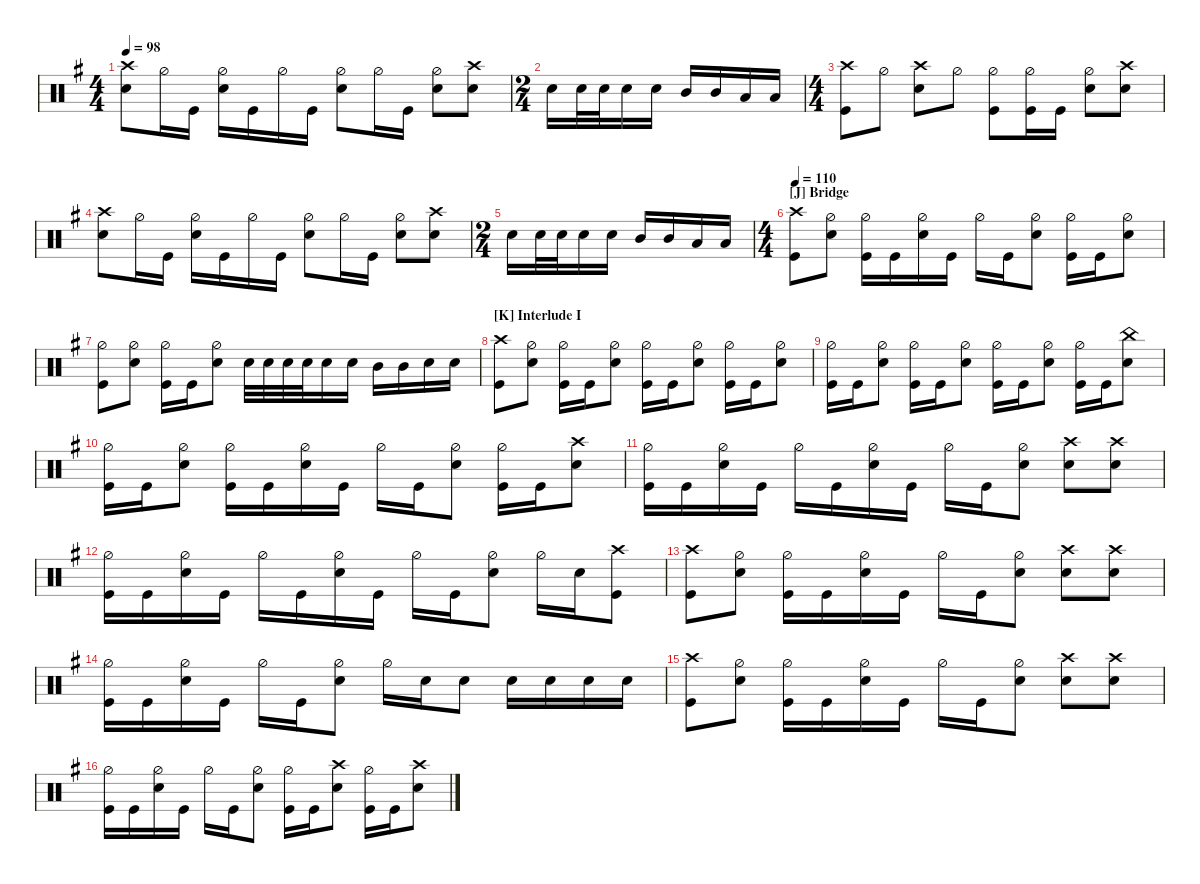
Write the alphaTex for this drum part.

\defaultSystemsLayout 4
\hideDynamics
\bracketExtendMode nobrackets
\track ("Drums" " ") {instrument percussion}
\staff
\articulation defaults
\ts (4 4)
\tempo 98
\clef neutral
\ks eminor
("Snare (hit) 2"{acc forcenatural} "Crash high (hit)"{acc forcenatural}).8{dy f} "Hi-Hat (half)"{acc forcenatural}.16 "Kick (hit)"{acc forcenatural}.16 ("Snare (hit) 2"{acc forcenatural} "Hi-Hat (half)"{acc forcenatural}).16 "Kick (hit)"{acc forcenatural}.16 "Hi-Hat (half)"{acc forcenatural}.16 "Kick (hit)"{acc forcenatural}.16 ("Snare (hit) 2"{acc forcenatural} "Hi-Hat (half)"{acc forcenatural}).8 "Hi-Hat (half)"{acc forcenatural}.16 "Kick (hit)"{acc forcenatural}.16 ("Snare (hit) 2"{acc forcenatural} "Hi-Hat (half)"{acc forcenatural}).8 ("Snare (hit) 2"{acc forcenatural} "Crash high (hit)"{acc forcenatural}).8 |
\ts (2 4)
\beaming (8 2 2)
"Snare (hit) 2"{acc forcenatural}.16 "Snare (hit) 2"{acc forcenatural}.32 "Snare (hit) 2"{acc forcenatural}.32 "Snare (hit) 2"{acc forcenatural}.16 "Snare (hit) 2"{acc forcenatural}.16 "Mid Tom (hit)"{acc forcenatural}.16{dy fff} "Mid Tom (hit)"{acc forcenatural}.16 "Low Tom (hit)"{acc forcenatural}.16 "Low Tom (hit)"{acc forcenatural}.16 |
\ts (4 4)
\beaming (8 2 2 2 2)
("Kick (hit)"{acc forcenatural} "Crash high (hit)"{acc forcenatural}).8{dy f} "Hi-Hat (half)"{acc forcenatural}.8 ("Snare (hit) 2"{acc forcenatural} "Crash high (hit)"{acc forcenatural}).8 "Hi-Hat (half)"{acc forcenatural}.8 ("Hi-Hat (half)"{acc forcenatural} "Kick (hit)"{acc forcenatural}).8 ("Hi-Hat (half)"{acc forcenatural} "Kick (hit)"{acc forcenatural}).16 "Kick (hit)"{acc forcenatural}.16 ("Snare (hit) 2"{acc forcenatural} "Hi-Hat (half)"{acc forcenatural}).8 ("Snare (hit) 2"{acc forcenatural} "Crash high (hit)"{acc forcenatural}).8 |
("Snare (hit) 2"{acc forcenatural} "Crash high (hit)"{acc forcenatural}).8 "Hi-Hat (half)"{acc forcenatural}.16 "Kick (hit)"{acc forcenatural}.16 ("Snare (hit) 2"{acc forcenatural} "Hi-Hat (half)"{acc forcenatural}).16 "Kick (hit)"{acc forcenatural}.16 "Hi-Hat (half)"{acc forcenatural}.16 "Kick (hit)"{acc forcenatural}.16 ("Snare (hit) 2"{acc forcenatural} "Hi-Hat (half)"{acc forcenatural}).8 "Hi-Hat (half)"{acc forcenatural}.16 "Kick (hit)"{acc forcenatural}.16 ("Snare (hit) 2"{acc forcenatural} "Hi-Hat (half)"{acc forcenatural}).8 ("Snare (hit) 2"{acc forcenatural} "Crash high (hit)"{acc forcenatural}).8 |
\ts (2 4)
\beaming (8 2 2)
"Snare (hit) 2"{acc forcenatural}.16 "Snare (hit) 2"{acc forcenatural}.32 "Snare (hit) 2"{acc forcenatural}.32 "Snare (hit) 2"{acc forcenatural}.16 "Snare (hit) 2"{acc forcenatural}.16 "Mid Tom (hit)"{acc forcenatural}.16{dy fff} "Mid Tom (hit)"{acc forcenatural}.16 "Low Tom (hit)"{acc forcenatural}.16 "Low Tom (hit)"{acc forcenatural}.16 |
\ts (4 4)
\beaming (8 2 2 2 2)
\section ("J" "Bridge")
\tempo 110
("Kick (hit)"{acc forcenatural} "Crash high (hit)"{acc forcenatural}).8{dy f} ("Hi-Hat (half)"{acc forcenatural} "Snare (hit) 2"{acc forcenatural}).8 ("Hi-Hat (half)"{acc forcenatural} "Kick (hit)"{acc forcenatural}).16 "Kick (hit)"{acc forcenatural}.16 ("Hi-Hat (half)"{acc forcenatural} "Snare (hit) 2"{acc forcenatural}).16 "Kick (hit)"{acc forcenatural}.16 "Hi-Hat (half)"{acc forcenatural}.16 "Kick (hit)"{acc forcenatural}.16 ("Hi-Hat (half)"{acc forcenatural} "Snare (hit) 2"{acc forcenatural}).8 ("Hi-Hat (half)"{acc forcenatural} "Kick (hit)"{acc forcenatural}).16 "Kick (hit)"{acc forcenatural}.16 ("Hi-Hat (half)"{acc forcenatural} "Snare (hit) 2"{acc forcenatural}).8 |
("Kick (hit)"{acc forcenatural} "Hi-Hat (half)"{acc forcenatural}).8 ("Hi-Hat (half)"{acc forcenatural} "Snare (hit) 2"{acc forcenatural}).8 ("Hi-Hat (half)"{acc forcenatural} "Kick (hit)"{acc forcenatural}).16 "Kick (hit)"{acc forcenatural}.16 ("Hi-Hat (half)"{acc forcenatural} "Snare (hit) 2"{acc forcenatural}).8 "Snare (hit) 2"{acc forcenatural}.32{dy mp} "Snare (hit) 2"{acc forcenatural}.32{dy mf} "Snare (hit) 2"{acc forcenatural}.32 "Snare (hit) 2"{acc forcenatural}.32 "Snare (hit) 2"{acc forcenatural}.16{dy f} "Snare (hit) 2"{acc forcenatural}.16 "Mid Tom (hit)"{acc forcenatural}.16{dy ff} "Mid Tom (hit)"{acc forcenatural}.16 "Snare (hit) 2"{acc forcenatural}.16{dy f} "Snare (hit) 2"{acc forcenatural}.16 |
\section ("K" "Interlude I")
("Kick (hit)"{acc forcenatural} "Crash high (hit)"{acc forcenatural}).8 ("Hi-Hat (half)"{acc forcenatural} "Snare (hit) 2"{acc forcenatural}).8 ("Hi-Hat (half)"{acc forcenatural} "Kick (hit)"{acc forcenatural}).16 "Kick (hit)"{acc forcenatural}.16 ("Hi-Hat (half)"{acc forcenatural} "Snare (hit) 2"{acc forcenatural}).8 ("Hi-Hat (half)"{acc forcenatural} "Kick (hit)"{acc forcenatural}).16 "Kick (hit)"{acc forcenatural}.16 ("Hi-Hat (half)"{acc forcenatural} "Snare (hit) 2"{acc forcenatural}).8 ("Hi-Hat (half)"{acc forcenatural} "Kick (hit)"{acc forcenatural}).16 "Kick (hit)"{acc forcenatural}.16 ("Hi-Hat (half)"{acc forcenatural} "Snare (hit) 2"{acc forcenatural}).8 |
("Hi-Hat (half)"{acc forcenatural} "Kick (hit)"{acc forcenatural}).16 "Kick (hit)"{acc forcenatural}.16 ("Hi-Hat (half)"{acc forcenatural} "Snare (hit) 2"{acc forcenatural}).8 ("Hi-Hat (half)"{acc forcenatural} "Kick (hit)"{acc forcenatural}).16 "Kick (hit)"{acc forcenatural}.16 ("Hi-Hat (half)"{acc forcenatural} "Snare (hit) 2"{acc forcenatural}).8 ("Hi-Hat (half)"{acc forcenatural} "Kick (hit)"{acc forcenatural}).16 "Kick (hit)"{acc forcenatural}.16 ("Hi-Hat (half)"{acc forcenatural} "Snare (hit) 2"{acc forcenatural}).8 ("Hi-Hat (half)"{acc forcenatural} "Kick (hit)"{acc forcenatural}).16 "Kick (hit)"{acc forcenatural}.16 ("Snare (hit) 2"{acc forcenatural} "China (hit)"{acc forcenatural}).8 |
("Hi-Hat (half)"{acc forcenatural} "Kick (hit)"{acc forcenatural}).16 "Kick (hit)"{acc forcenatural}.16 ("Hi-Hat (half)"{acc forcenatural} "Snare (hit) 2"{acc forcenatural}).8 ("Hi-Hat (half)"{acc forcenatural} "Kick (hit)"{acc forcenatural}).16 "Kick (hit)"{acc forcenatural}.16 ("Hi-Hat (half)"{acc forcenatural} "Snare (hit) 2"{acc forcenatural}).16 "Kick (hit)"{acc forcenatural}.16 "Hi-Hat (half)"{acc forcenatural}.16 "Kick (hit)"{acc forcenatural}.16 ("Hi-Hat (half)"{acc forcenatural} "Snare (hit) 2"{acc forcenatural}).8 ("Hi-Hat (half)"{acc forcenatural} "Kick (hit)"{acc forcenatural}).16 "Kick (hit)"{acc forcenatural}.16 ("Snare (hit) 2"{acc forcenatural} "Crash high (hit)"{acc forcenatural}).8 |
("Hi-Hat (half)"{acc forcenatural} "Kick (hit)"{acc forcenatural}).16 "Kick (hit)"{acc forcenatural}.16 ("Hi-Hat (half)"{acc forcenatural} "Snare (hit) 2"{acc forcenatural}).16 "Kick (hit)"{acc forcenatural}.16 "Hi-Hat (half)"{acc forcenatural}.16 "Kick (hit)"{acc forcenatural}.16 ("Hi-Hat (half)"{acc forcenatural} "Snare (hit) 2"{acc forcenatural}).16 "Kick (hit)"{acc forcenatural}.16 "Hi-Hat (half)"{acc forcenatural}.16 "Kick (hit)"{acc forcenatural}.16 ("Hi-Hat (half)"{acc forcenatural} "Snare (hit) 2"{acc forcenatural}).8 ("Snare (hit) 2"{acc forcenatural} "Crash high (hit)"{acc forcenatural}).8 ("Snare (hit) 2"{acc forcenatural} "Crash high (hit)"{acc forcenatural}).8 |
("Hi-Hat (half)"{acc forcenatural} "Kick (hit)"{acc forcenatural}).16 "Kick (hit)"{acc forcenatural}.16 ("Hi-Hat (half)"{acc forcenatural} "Snare (hit) 2"{acc forcenatural}).16 "Kick (hit)"{acc forcenatural}.16 "Hi-Hat (half)"{acc forcenatural}.16 "Kick (hit)"{acc forcenatural}.16 ("Hi-Hat (half)"{acc forcenatural} "Snare (hit) 2"{acc forcenatural}).16 "Kick (hit)"{acc forcenatural}.16 "Hi-Hat (half)"{acc forcenatural}.16 "Kick (hit)"{acc forcenatural}.16 ("Hi-Hat (half)"{acc forcenatural} "Snare (hit) 2"{acc forcenatural}).8 "Hi-Hat (half)"{acc forcenatural}.16 "Snare (hit) 2"{acc forcenatural}.16 ("Kick (hit)"{acc forcenatural} "Crash high (hit)"{acc forcenatural}).8 |
("Kick (hit)"{acc forcenatural} "Crash high (hit)"{acc forcenatural}).8 ("Hi-Hat (half)"{acc forcenatural} "Snare (hit) 2"{acc forcenatural}).8 ("Kick (hit)"{acc forcenatural} "Hi-Hat (half)"{acc forcenatural}).16 "Kick (hit)"{acc forcenatural}.16 ("Hi-Hat (half)"{acc forcenatural} "Snare (hit) 2"{acc forcenatural}).16 "Kick (hit)"{acc forcenatural}.16 "Hi-Hat (half)"{acc forcenatural}.16 "Kick (hit)"{acc forcenatural}.16 ("Hi-Hat (half)"{acc forcenatural} "Snare (hit) 2"{acc forcenatural}).8 ("Snare (hit) 2"{acc forcenatural} "Crash high (hit)"{acc forcenatural}).8 ("Snare (hit) 2"{acc forcenatural} "Crash high (hit)"{acc forcenatural}).8 |
("Hi-Hat (half)"{acc forcenatural} "Kick (hit)"{acc forcenatural}).16 "Kick (hit)"{acc forcenatural}.16 ("Hi-Hat (half)"{acc forcenatural} "Snare (hit) 2"{acc forcenatural}).16 "Kick (hit)"{acc forcenatural}.16 "Hi-Hat (half)"{acc forcenatural}.16 "Kick (hit)"{acc forcenatural}.16 ("Hi-Hat (half)"{acc forcenatural} "Snare (hit) 2"{acc forcenatural}).8 "Hi-Hat (half)"{acc forcenatural}.16 "Snare (hit) 2"{acc forcenatural}.16 "Snare (hit) 2"{acc forcenatural}.8 "Snare (hit) 2"{acc forcenatural}.16 "Snare (hit) 2"{acc forcenatural}.16 "Snare (hit) 2"{acc forcenatural}.16 "Snare (hit) 2"{acc forcenatural}.16 |
("Kick (hit)"{acc forcenatural} "Crash high (hit)"{acc forcenatural}).8 ("Hi-Hat (half)"{acc forcenatural} "Snare (hit) 2"{acc forcenatural}).8 ("Kick (hit)"{acc forcenatural} "Hi-Hat (half)"{acc forcenatural}).16 "Kick (hit)"{acc forcenatural}.16 ("Hi-Hat (half)"{acc forcenatural} "Snare (hit) 2"{acc forcenatural}).16 "Kick (hit)"{acc forcenatural}.16 "Hi-Hat (half)"{acc forcenatural}.16 "Kick (hit)"{acc forcenatural}.16 ("Hi-Hat (half)"{acc forcenatural} "Snare (hit) 2"{acc forcenatural}).8 ("Snare (hit) 2"{acc forcenatural} "Crash high (hit)"{acc forcenatural}).8 ("Snare (hit) 2"{acc forcenatural} "Crash high (hit)"{acc forcenatural}).8 |
("Hi-Hat (half)"{acc forcenatural} "Kick (hit)"{acc forcenatural}).16 "Kick (hit)"{acc forcenatural}.16 ("Hi-Hat (half)"{acc forcenatural} "Snare (hit) 2"{acc forcenatural}).16 "Kick (hit)"{acc forcenatural}.16 "Hi-Hat (half)"{acc forcenatural}.16 "Kick (hit)"{acc forcenatural}.16 ("Hi-Hat (half)"{acc forcenatural} "Snare (hit) 2"{acc forcenatural}).8 ("Hi-Hat (half)"{acc forcenatural} "Kick (hit)"{acc forcenatural}).16 "Kick (hit)"{acc forcenatural}.16 ("Snare (hit) 2"{acc forcenatural} "Crash high (hit)"{acc forcenatural}).8 ("Hi-Hat (half)"{acc forcenatural} "Kick (hit)"{acc forcenatural}).16 "Kick (hit)"{acc forcenatural}.16 ("Snare (hit) 2"{acc forcenatural} "Crash high (hit)"{acc forcenatural}).8
